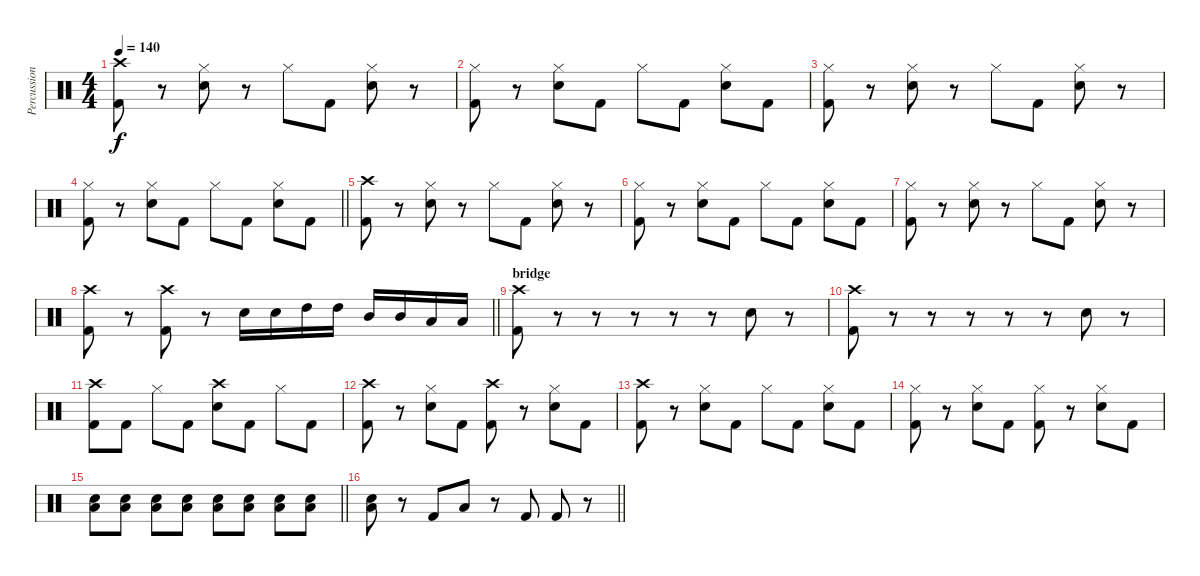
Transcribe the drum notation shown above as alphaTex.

\track ("Percussion" "Percussion") {instrument percussion}
\staff {score}
\articulation defaults
\ts (4 4)
\tempo 140
\clef neutral
\ks c
("Crash high (hit)" "Kick (hit) 2").8{dy f} r.8 ("Hi-Hat (closed)" "Snare (hit) 2").8 r.8 "Hi-Hat (closed)".8 "Kick (hit) 2".8 ("Hi-Hat (closed)" "Snare (hit) 2").8 r.8 |
("Hi-Hat (closed)" "Kick (hit) 2").8 r.8 ("Hi-Hat (closed)" "Snare (hit) 2").8 "Kick (hit) 2".8 "Hi-Hat (closed)".8 "Kick (hit) 2".8 ("Hi-Hat (closed)" "Snare (hit) 2").8 "Kick (hit) 2".8 |
("Hi-Hat (closed)" "Kick (hit) 2").8 r.8 ("Hi-Hat (closed)" "Snare (hit) 2").8 r.8 "Hi-Hat (closed)".8 "Kick (hit) 2".8 ("Hi-Hat (closed)" "Snare (hit) 2").8 r.8 |
\barLineRight lightlight
("Hi-Hat (closed)" "Kick (hit) 2").8 r.8 ("Hi-Hat (closed)" "Snare (hit) 2").8 "Kick (hit) 2".8 "Hi-Hat (closed)".8 "Kick (hit) 2".8 ("Hi-Hat (closed)" "Snare (hit) 2").8 "Kick (hit) 2".8 |
("Crash high (hit)" "Kick (hit) 2").8 r.8 ("Hi-Hat (closed)" "Snare (hit) 2").8 r.8 "Hi-Hat (closed)".8 "Kick (hit) 2".8 ("Hi-Hat (closed)" "Snare (hit) 2").8 r.8 |
("Hi-Hat (closed)" "Kick (hit) 2").8 r.8 ("Hi-Hat (closed)" "Snare (hit) 2").8 "Kick (hit) 2".8 "Hi-Hat (closed)".8 "Kick (hit) 2".8 ("Hi-Hat (closed)" "Snare (hit) 2").8 "Kick (hit) 2".8 |
("Hi-Hat (closed)" "Kick (hit) 2").8 r.8 ("Hi-Hat (closed)" "Snare (hit) 2").8 r.8 "Hi-Hat (closed)".8 "Kick (hit) 2".8 ("Hi-Hat (closed)" "Snare (hit) 2").8 r.8 |
\barLineRight lightlight
("Crash high (hit)" "Kick (hit) 2").8 r.8 ("Crash high (hit)" "Kick (hit) 2").8 r.8 "Snare (hit) 2".16 "Snare (hit) 2".16 "High Tom (hit)".16 "High Tom (hit)".16 "Mid Tom (hit)".16 "Mid Tom (hit)".16 "Low Tom (hit)".16 "Low Tom (hit)".16 |
\section ("" "bridge")
("Crash high (hit)" "Kick (hit) 2").8 r.8 r.8 r.8 r.8 r.8 "Snare (hit) 2".8 r.8 |
("Crash high (hit)" "Kick (hit) 2").8 r.8 r.8 r.8 r.8 r.8 "Snare (hit) 2".8 r.8 |
("Crash high (hit)" "Kick (hit) 2").8 "Kick (hit) 2".8 "Hi-Hat (closed)".8 "Kick (hit) 2".8 ("Crash high (hit)" "Snare (hit) 2").8 "Kick (hit) 2".8 "Hi-Hat (closed)".8 "Kick (hit) 2".8 |
("Crash high (hit)" "Kick (hit) 2").8 r.8 ("Hi-Hat (closed)" "Snare (hit) 2").8 "Kick (hit) 2".8 ("Crash high (hit)" "Kick (hit) 2").8 r.8 ("Hi-Hat (closed)" "Snare (hit) 2").8 "Kick (hit) 2".8 |
("Crash high (hit)" "Kick (hit) 2").8 r.8 ("Hi-Hat (closed)" "Snare (hit) 2").8 "Kick (hit) 2".8 "Hi-Hat (closed)".8 "Kick (hit) 2".8 ("Hi-Hat (closed)" "Snare (hit) 2").8 "Kick (hit) 2".8 |
("Hi-Hat (closed)" "Kick (hit) 2").8 r.8 ("Hi-Hat (closed)" "Snare (hit) 2").8 "Kick (hit) 2".8 ("Hi-Hat (closed)" "Kick (hit) 2").8 r.8 ("Hi-Hat (closed)" "Snare (hit) 2").8 "Kick (hit) 2".8 |
\barLineRight lightlight
("Low Floor Tom (hit)" "Snare (hit) 2").8 ("Low Floor Tom (hit)" "Snare (hit) 2").8 ("Low Floor Tom (hit)" "Snare (hit) 2").8 ("Low Floor Tom (hit)" "Snare (hit) 2").8 ("Low Floor Tom (hit)" "Snare (hit) 2").8 ("Low Floor Tom (hit)" "Snare (hit) 2").8 ("Low Floor Tom (hit)" "Snare (hit) 2").8 ("Low Floor Tom (hit)" "Snare (hit) 2").8 |
\barLineRight lightlight
("Low Floor Tom (hit)" "Snare (hit) 2").8 r.8 "Kick (hit) 2".8 "Low Floor Tom (hit)".8 r.8 "Kick (hit) 2".8 "Kick (hit) 2".8 r.8
